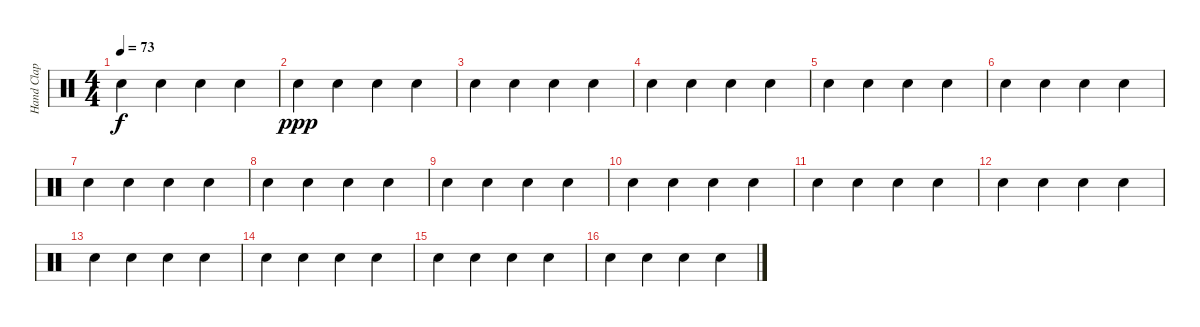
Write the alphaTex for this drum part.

\track ("Hand Clap" "Hand Clap") {instrument percussion}
\staff {score}
\articulation defaults
\ts (4 4)
\tempo 73
\clef neutral
\ks c "Hand Clap (hit)".4{dy f} "Hand Clap (hit)".4 "Hand Clap (hit)".4 "Hand Clap (hit)".4
|
"Hand Clap (hit)".4{dy ppp} "Hand Clap (hit)".4 "Hand Clap (hit)".4 "Hand Clap (hit)".4 |
"Hand Clap (hit)".4 "Hand Clap (hit)".4 "Hand Clap (hit)".4 "Hand Clap (hit)".4 |
"Hand Clap (hit)".4 "Hand Clap (hit)".4 "Hand Clap (hit)".4 "Hand Clap (hit)".4 |
"Hand Clap (hit)".4 "Hand Clap (hit)".4 "Hand Clap (hit)".4 "Hand Clap (hit)".4 |
"Hand Clap (hit)".4 "Hand Clap (hit)".4 "Hand Clap (hit)".4 "Hand Clap (hit)".4 |
"Hand Clap (hit)".4 "Hand Clap (hit)".4 "Hand Clap (hit)".4 "Hand Clap (hit)".4 |
"Hand Clap (hit)".4 "Hand Clap (hit)".4 "Hand Clap (hit)".4 "Hand Clap (hit)".4 |
"Hand Clap (hit)".4 "Hand Clap (hit)".4 "Hand Clap (hit)".4 "Hand Clap (hit)".4 |
"Hand Clap (hit)".4 "Hand Clap (hit)".4 "Hand Clap (hit)".4 "Hand Clap (hit)".4 |
"Hand Clap (hit)".4 "Hand Clap (hit)".4 "Hand Clap (hit)".4 "Hand Clap (hit)".4 |
"Hand Clap (hit)".4 "Hand Clap (hit)".4 "Hand Clap (hit)".4 "Hand Clap (hit)".4 |
"Hand Clap (hit)".4 "Hand Clap (hit)".4 "Hand Clap (hit)".4 "Hand Clap (hit)".4 |
"Hand Clap (hit)".4 "Hand Clap (hit)".4 "Hand Clap (hit)".4 "Hand Clap (hit)".4 |
"Hand Clap (hit)".4 "Hand Clap (hit)".4 "Hand Clap (hit)".4 "Hand Clap (hit)".4 |
"Hand Clap (hit)".4 "Hand Clap (hit)".4 "Hand Clap (hit)".4 "Hand Clap (hit)".4
